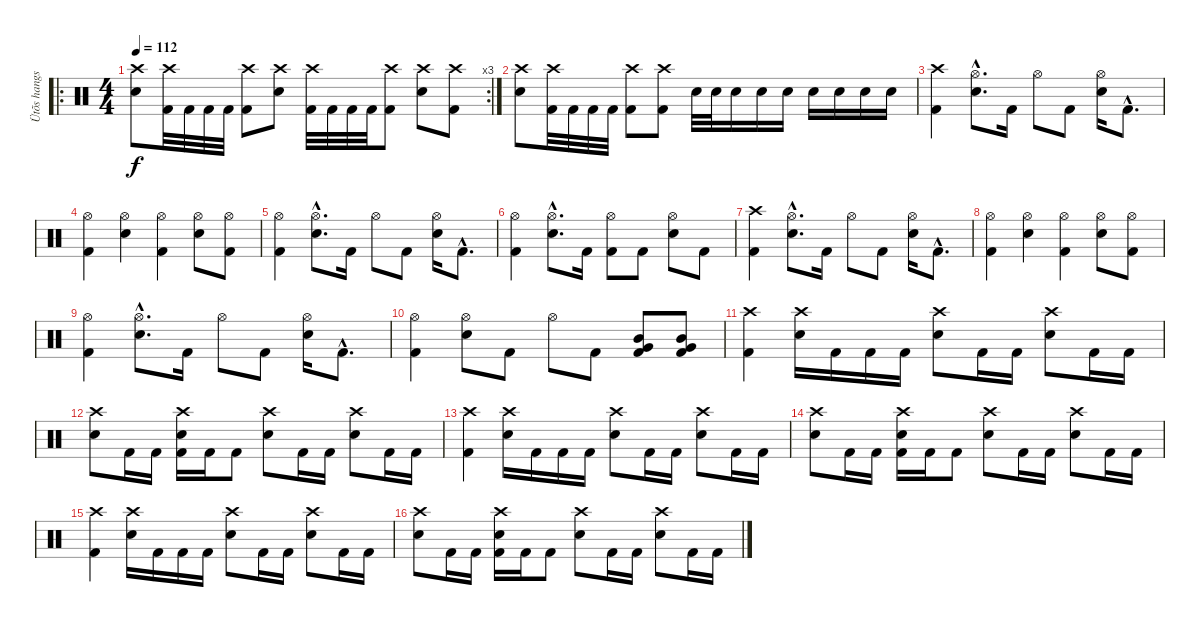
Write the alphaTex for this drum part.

\track ("Ütõs hangszer" "Ütõs hangs") {instrument percussion}
\staff {score}
\articulation defaults
\ro
\rc 3
\ts (4 4)
\tempo 112
\clef neutral
\ks c
("Crash high (hit)" "Electric Snare (hit)").8{dy f} ("Crash high (hit)" "Kick (hit) 2").32 "Kick (hit) 2".32 "Kick (hit) 2".32 "Kick (hit) 2".32 ("Crash high (hit)" "Kick (hit) 2").8 ("Crash high (hit)" "Electric Snare (hit)").8 ("Crash high (hit)" "Kick (hit) 2").32 "Kick (hit) 2".32 "Kick (hit) 2".32 "Kick (hit) 2".32 ("Crash high (hit)" "Kick (hit) 2").8 ("Crash high (hit)" "Electric Snare (hit)").8 ("Crash high (hit)" "Kick (hit) 2").8 |
("Crash high (hit)" "Electric Snare (hit)").8 ("Crash high (hit)" "Kick (hit) 2").32 "Kick (hit) 2".32 "Kick (hit) 2".32 "Kick (hit) 2".32 ("Crash high (hit)" "Kick (hit) 2").8 ("Crash high (hit)" "Kick (hit) 2").8 "Electric Snare (hit)".32 "Electric Snare (hit)".32 "Electric Snare (hit)".16 "Electric Snare (hit)".16 "Electric Snare (hit)".16 "Electric Snare (hit)".16 "Electric Snare (hit)".16 "Electric Snare (hit)".16 "Electric Snare (hit)".16 |
("Crash high (hit)" "Kick (hit) 2").4 ("Hi-Hat (open)"{hac} "Electric Snare (hit)"{hac}).8{d} "Kick (hit) 2".16 "Hi-Hat (open)".8 "Kick (hit) 2".8 ("Hi-Hat (open)" "Electric Snare (hit)").16 "Kick (hit) 2"{hac}.8{d} |
("Hi-Hat (open)" "Kick (hit) 2").4 ("Hi-Hat (open)" "Electric Snare (hit)").4 ("Hi-Hat (open)" "Kick (hit) 2").4 ("Hi-Hat (open)" "Electric Snare (hit)").8 ("Hi-Hat (open)" "Kick (hit) 2").8 |
("Hi-Hat (open)" "Kick (hit) 2").4 ("Hi-Hat (open)"{hac} "Electric Snare (hit)"{hac}).8{d} "Kick (hit) 2".16 "Hi-Hat (open)".8 "Kick (hit) 2".8 ("Hi-Hat (open)" "Electric Snare (hit)").16 "Kick (hit) 2"{hac}.8{d} |
("Hi-Hat (open)" "Kick (hit) 2").4 ("Hi-Hat (open)"{hac} "Electric Snare (hit)"{hac}).8{d} "Kick (hit) 2".16 ("Hi-Hat (open)" "Kick (hit) 2").8 "Kick (hit) 2".8 ("Hi-Hat (open)" "Electric Snare (hit)").8 "Kick (hit) 2".8 |
("Crash high (hit)" "Kick (hit) 2").4 ("Hi-Hat (open)"{hac} "Electric Snare (hit)"{hac}).8{d} "Kick (hit) 2".16 "Hi-Hat (open)".8 "Kick (hit) 2".8 ("Hi-Hat (open)" "Electric Snare (hit)").16 "Kick (hit) 2"{hac}.8{d} |
("Hi-Hat (open)" "Kick (hit) 2").4 ("Hi-Hat (open)" "Electric Snare (hit)").4 ("Hi-Hat (open)" "Kick (hit) 2").4 ("Hi-Hat (open)" "Electric Snare (hit)").8 ("Hi-Hat (open)" "Kick (hit) 2").8 |
("Hi-Hat (open)" "Kick (hit) 2").4 ("Hi-Hat (open)"{hac} "Electric Snare (hit)"{hac}).8{d} "Kick (hit) 2".16 "Hi-Hat (open)".8 "Kick (hit) 2".8 ("Hi-Hat (open)" "Electric Snare (hit)").16 "Kick (hit) 2"{hac}.8{d} |
("Hi-Hat (open)" "Kick (hit) 2").4 ("Hi-Hat (open)" "Electric Snare (hit)").8 "Kick (hit) 2".8 "Hi-Hat (open)".8 "Kick (hit) 2".8 ("Mid Tom (hit)" "Very Low Tom (hit)" "Kick (hit) 2").8 ("Mid Tom (hit)" "Very Low Tom (hit)" "Kick (hit) 2").8 |
("Crash high (hit)" "Kick (hit) 2").4 ("Crash high (hit)" "Electric Snare (hit)").16 "Kick (hit) 2".16 "Kick (hit) 2".16 "Kick (hit) 2".16 ("Crash high (hit)" "Electric Snare (hit)").8 "Kick (hit) 2".16 "Kick (hit) 2".16 ("Crash high (hit)" "Electric Snare (hit)").8 "Kick (hit) 2".16 "Kick (hit) 2".16 |
("Crash high (hit)" "Electric Snare (hit)").8 "Kick (hit) 2".16 "Kick (hit) 2".16 ("Crash high (hit)" "Electric Snare (hit)" "Kick (hit) 2").16 "Kick (hit) 2".16 "Kick (hit) 2".8 ("Crash high (hit)" "Electric Snare (hit)").8 "Kick (hit) 2".16 "Kick (hit) 2".16 ("Crash high (hit)" "Electric Snare (hit)").8 "Kick (hit) 2".16 "Kick (hit) 2".16 |
("Crash high (hit)" "Kick (hit) 2").4 ("Crash high (hit)" "Electric Snare (hit)").16 "Kick (hit) 2".16 "Kick (hit) 2".16 "Kick (hit) 2".16 ("Crash high (hit)" "Electric Snare (hit)").8 "Kick (hit) 2".16 "Kick (hit) 2".16 ("Crash high (hit)" "Electric Snare (hit)").8 "Kick (hit) 2".16 "Kick (hit) 2".16 |
("Crash high (hit)" "Electric Snare (hit)").8 "Kick (hit) 2".16 "Kick (hit) 2".16 ("Crash high (hit)" "Electric Snare (hit)" "Kick (hit) 2").16 "Kick (hit) 2".16 "Kick (hit) 2".8 ("Crash high (hit)" "Electric Snare (hit)").8 "Kick (hit) 2".16 "Kick (hit) 2".16 ("Crash high (hit)" "Electric Snare (hit)").8 "Kick (hit) 2".16 "Kick (hit) 2".16 |
("Crash high (hit)" "Kick (hit) 2").4 ("Crash high (hit)" "Electric Snare (hit)").16 "Kick (hit) 2".16 "Kick (hit) 2".16 "Kick (hit) 2".16 ("Crash high (hit)" "Electric Snare (hit)").8 "Kick (hit) 2".16 "Kick (hit) 2".16 ("Crash high (hit)" "Electric Snare (hit)").8 "Kick (hit) 2".16 "Kick (hit) 2".16 |
("Crash high (hit)" "Electric Snare (hit)").8 "Kick (hit) 2".16 "Kick (hit) 2".16 ("Crash high (hit)" "Electric Snare (hit)" "Kick (hit) 2").16 "Kick (hit) 2".16 "Kick (hit) 2".8 ("Crash high (hit)" "Electric Snare (hit)").8 "Kick (hit) 2".16 "Kick (hit) 2".16 ("Crash high (hit)" "Electric Snare (hit)").8 "Kick (hit) 2".16 "Kick (hit) 2".16
